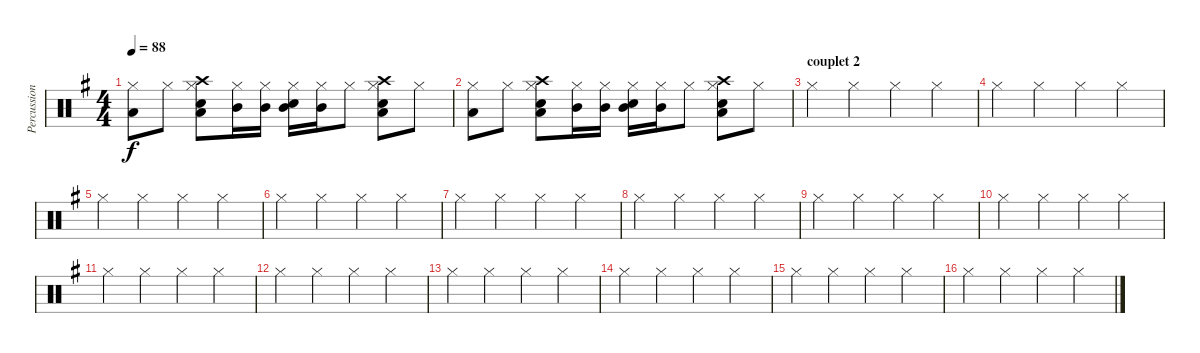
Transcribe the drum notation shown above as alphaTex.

\track ("Percussions" "Percussion") {instrument percussion}
\staff {score}
\articulation defaults
\ts (4 4)
\tempo 88
\clef neutral
\ks g
("Hi-Hat (closed)" "Low Floor Tom (hit)").8{dy f} "Hi-Hat (closed)".8 ("Snare (hit) 2" "Low Floor Tom (hit)" "Hi-Hat (closed)" "Crash high (hit)").8 ("Mid Tom (hit)" "Hi-Hat (closed)").16 ("Mid Tom (hit)" "Hi-Hat (closed)").16 ("Snare (hit) 2" "Mid Tom (hit)" "Hi-Hat (closed)").16 ("Mid Tom (hit)" "Hi-Hat (closed)").16 "Hi-Hat (closed)".8 ("Snare (hit) 2" "Low Floor Tom (hit)" "Hi-Hat (closed)" "Crash high (hit)").8 "Hi-Hat (closed)".8 |
("Hi-Hat (closed)" "Low Floor Tom (hit)").8 "Hi-Hat (closed)".8 ("Snare (hit) 2" "Low Floor Tom (hit)" "Hi-Hat (closed)" "Crash high (hit)").8 ("Mid Tom (hit)" "Hi-Hat (closed)").16 ("Mid Tom (hit)" "Hi-Hat (closed)").16 ("Snare (hit) 2" "Mid Tom (hit)" "Hi-Hat (closed)").16 ("Mid Tom (hit)" "Hi-Hat (closed)").16 "Hi-Hat (closed)".8 ("Snare (hit) 2" "Low Floor Tom (hit)" "Hi-Hat (closed)" "Crash high (hit)").8 "Hi-Hat (closed)".8 |
\section ("" "couplet 2")
"Hi-Hat (closed)".4 "Hi-Hat (closed)".4 "Hi-Hat (closed)".4 "Hi-Hat (closed)".4 |
"Hi-Hat (closed)".4 "Hi-Hat (closed)".4 "Hi-Hat (closed)".4 "Hi-Hat (closed)".4 |
"Hi-Hat (closed)".4 "Hi-Hat (closed)".4 "Hi-Hat (closed)".4 "Hi-Hat (closed)".4 |
"Hi-Hat (closed)".4 "Hi-Hat (closed)".4 "Hi-Hat (closed)".4 "Hi-Hat (closed)".4 |
"Hi-Hat (closed)".4 "Hi-Hat (closed)".4 "Hi-Hat (closed)".4 "Hi-Hat (closed)".4 |
"Hi-Hat (closed)".4 "Hi-Hat (closed)".4 "Hi-Hat (closed)".4 "Hi-Hat (closed)".4 |
"Hi-Hat (closed)".4 "Hi-Hat (closed)".4 "Hi-Hat (closed)".4 "Hi-Hat (closed)".4 |
"Hi-Hat (closed)".4 "Hi-Hat (closed)".4 "Hi-Hat (closed)".4 "Hi-Hat (closed)".4 |
"Hi-Hat (closed)".4 "Hi-Hat (closed)".4 "Hi-Hat (closed)".4 "Hi-Hat (closed)".4 |
"Hi-Hat (closed)".4 "Hi-Hat (closed)".4 "Hi-Hat (closed)".4 "Hi-Hat (closed)".4 |
"Hi-Hat (closed)".4 "Hi-Hat (closed)".4 "Hi-Hat (closed)".4 "Hi-Hat (closed)".4 |
"Hi-Hat (closed)".4 "Hi-Hat (closed)".4 "Hi-Hat (closed)".4 "Hi-Hat (closed)".4 |
"Hi-Hat (closed)".4 "Hi-Hat (closed)".4 "Hi-Hat (closed)".4 "Hi-Hat (closed)".4 |
"Hi-Hat (closed)".4 "Hi-Hat (closed)".4 "Hi-Hat (closed)".4 "Hi-Hat (closed)".4
